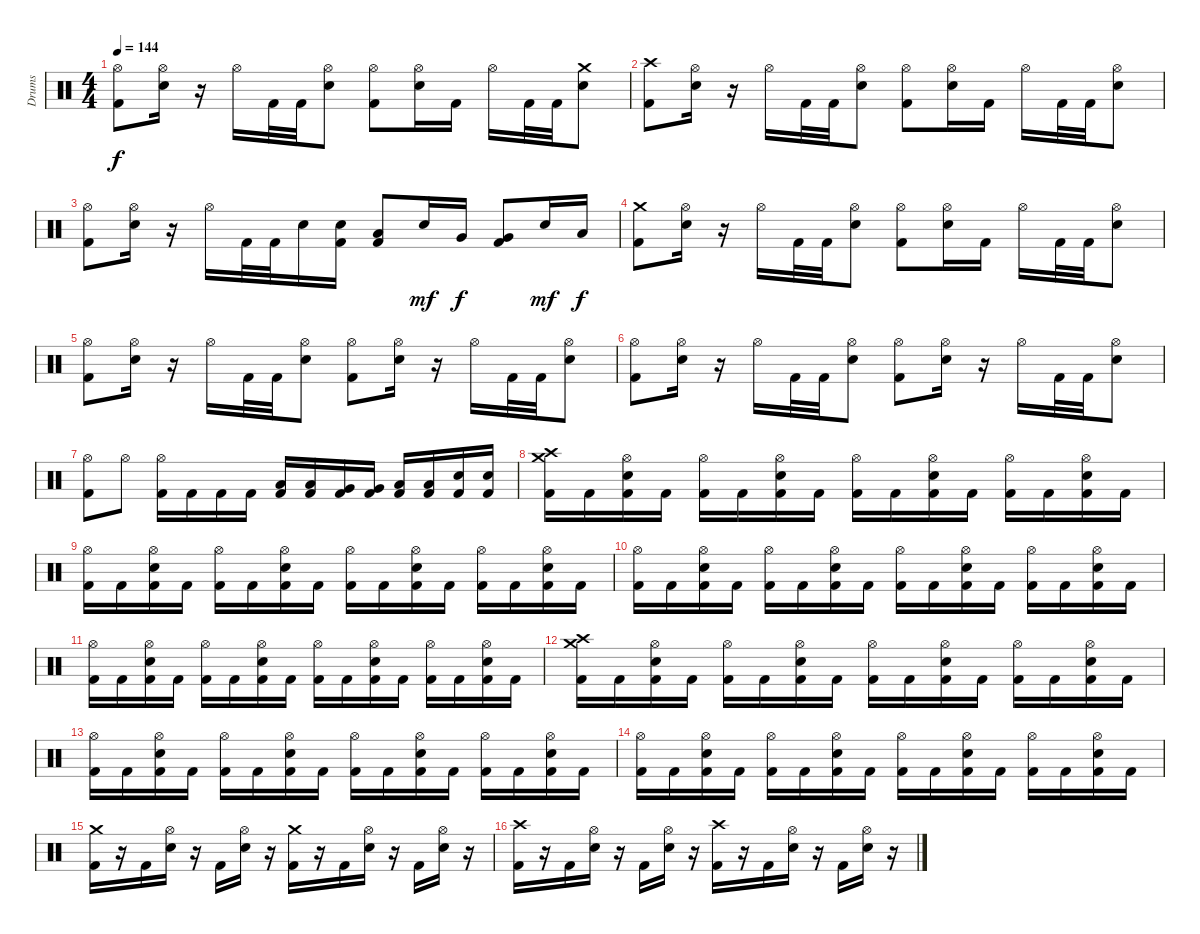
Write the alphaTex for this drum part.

\track ("Drums" "Drums") {instrument percussion}
\staff {score}
\articulation defaults
\ts (4 4)
\tempo 144
\clef neutral
\ks c
("Kick (hit) 2" "Hi-Hat (open)").8{dy f} ("Electric Snare (hit)" "Hi-Hat (open)").16 r.16 "Hi-Hat (open)".16 "Kick (hit) 2".32 "Kick (hit) 2".32 ("Electric Snare (hit)" "Hi-Hat (open)").8 ("Kick (hit) 2" "Hi-Hat (open)").8 ("Electric Snare (hit)" "Hi-Hat (open)").16 "Kick (hit) 2".16 "Hi-Hat (open)".16 "Kick (hit) 2".32 "Kick (hit) 2".32 ("Electric Snare (hit)" "Crash medium (hit)").8 |
("Kick (hit) 2" "Crash high (hit)").8 ("Electric Snare (hit)" "Hi-Hat (open)").16 r.16 "Hi-Hat (open)".16 "Kick (hit) 2".32 "Kick (hit) 2".32 ("Electric Snare (hit)" "Hi-Hat (open)").8 ("Kick (hit) 2" "Hi-Hat (open)").8 ("Electric Snare (hit)" "Hi-Hat (open)").16 "Kick (hit) 2".16 "Hi-Hat (open)".16 "Kick (hit) 2".32 "Kick (hit) 2".32 ("Electric Snare (hit)" "Hi-Hat (open)").8 |
("Kick (hit) 2" "Hi-Hat (open)").8 ("Electric Snare (hit)" "Hi-Hat (open)").16 r.16 "Hi-Hat (open)".16 "Kick (hit) 2".32 "Kick (hit) 2".32 "Electric Snare (hit)".16 ("Kick (hit) 2" "Electric Snare (hit)").16 ("Kick (hit) 2" "Low Tom (hit)").8 "Electric Snare (hit)".16{dy mf} "Very Low Tom (hit)".16{dy f} ("Kick (hit) 2" "Very Low Tom (hit)").8 "Electric Snare (hit)".16{dy mf} "Low Tom (hit)".16{dy f} |
("Kick (hit) 2" "Crash medium (hit)").8 ("Electric Snare (hit)" "Hi-Hat (open)").16 r.16 "Hi-Hat (open)".16 "Kick (hit) 2".32 "Kick (hit) 2".32 ("Electric Snare (hit)" "Hi-Hat (open)").8 ("Kick (hit) 2" "Hi-Hat (open)").8 ("Electric Snare (hit)" "Hi-Hat (open)").16 "Kick (hit) 2".16 "Hi-Hat (open)".16 "Kick (hit) 2".32 "Kick (hit) 2".32 ("Electric Snare (hit)" "Hi-Hat (open)").8 |
("Kick (hit) 2" "Hi-Hat (open)").8 ("Electric Snare (hit)" "Hi-Hat (open)").16 r.16 "Hi-Hat (open)".16 "Kick (hit) 2".32 "Kick (hit) 2".32 ("Electric Snare (hit)" "Hi-Hat (open)").8 ("Kick (hit) 2" "Hi-Hat (open)").8 ("Electric Snare (hit)" "Hi-Hat (open)").16 r.16 "Hi-Hat (open)".16 "Kick (hit) 2".32 "Kick (hit) 2".32 ("Electric Snare (hit)" "Hi-Hat (open)").8 |
("Kick (hit) 2" "Hi-Hat (open)").8 ("Electric Snare (hit)" "Hi-Hat (open)").16 r.16 "Hi-Hat (open)".16 "Kick (hit) 2".32 "Kick (hit) 2".32 ("Electric Snare (hit)" "Hi-Hat (open)").8 ("Kick (hit) 2" "Hi-Hat (open)").8 ("Electric Snare (hit)" "Hi-Hat (open)").16 r.16 "Hi-Hat (open)".16 "Kick (hit) 2".32 "Kick (hit) 2".32 ("Electric Snare (hit)" "Hi-Hat (open)").8 |
("Kick (hit) 2" "Hi-Hat (open)").8 "Hi-Hat (open)".8 ("Kick (hit) 2" "Hi-Hat (open)").16 "Kick (hit) 2".16 "Kick (hit) 2".16 "Kick (hit) 2".16 ("Kick (hit) 2" "Low Tom (hit)").16 ("Kick (hit) 2" "Low Tom (hit)").16 ("Kick (hit) 2" "Very Low Tom (hit)").16 ("Kick (hit) 2" "Very Low Tom (hit)").16 ("Kick (hit) 2" "Low Tom (hit)").16 ("Kick (hit) 2" "Low Tom (hit)").16 ("Kick (hit) 2" "Electric Snare (hit)").16 ("Kick (hit) 2" "Electric Snare (hit)").16 |
("Kick (hit) 2" "Crash high (hit)" "Crash medium (hit)").16 "Kick (hit) 2".16 ("Kick (hit) 2" "Electric Snare (hit)" "Hi-Hat (open)").16 "Kick (hit) 2".16 ("Kick (hit) 2" "Hi-Hat (open)").16 "Kick (hit) 2".16 ("Kick (hit) 2" "Electric Snare (hit)" "Hi-Hat (open)").16 "Kick (hit) 2".16 ("Kick (hit) 2" "Hi-Hat (open)").16 "Kick (hit) 2".16 ("Kick (hit) 2" "Electric Snare (hit)" "Hi-Hat (open)").16 "Kick (hit) 2".16 ("Kick (hit) 2" "Hi-Hat (open)").16 "Kick (hit) 2".16 ("Kick (hit) 2" "Electric Snare (hit)" "Hi-Hat (open)").16 "Kick (hit) 2".16 |
("Kick (hit) 2" "Hi-Hat (open)").16 "Kick (hit) 2".16 ("Kick (hit) 2" "Electric Snare (hit)" "Hi-Hat (open)").16 "Kick (hit) 2".16 ("Kick (hit) 2" "Hi-Hat (open)").16 "Kick (hit) 2".16 ("Kick (hit) 2" "Electric Snare (hit)" "Hi-Hat (open)").16 "Kick (hit) 2".16 ("Kick (hit) 2" "Hi-Hat (open)").16 "Kick (hit) 2".16 ("Kick (hit) 2" "Electric Snare (hit)" "Hi-Hat (open)").16 "Kick (hit) 2".16 ("Kick (hit) 2" "Hi-Hat (open)").16 "Kick (hit) 2".16 ("Kick (hit) 2" "Electric Snare (hit)" "Hi-Hat (open)").16 "Kick (hit) 2".16 |
("Kick (hit) 2" "Hi-Hat (open)").16 "Kick (hit) 2".16 ("Kick (hit) 2" "Electric Snare (hit)" "Hi-Hat (open)").16 "Kick (hit) 2".16 ("Kick (hit) 2" "Hi-Hat (open)").16 "Kick (hit) 2".16 ("Kick (hit) 2" "Electric Snare (hit)" "Hi-Hat (open)").16 "Kick (hit) 2".16 ("Kick (hit) 2" "Hi-Hat (open)").16 "Kick (hit) 2".16 ("Kick (hit) 2" "Electric Snare (hit)" "Hi-Hat (open)").16 "Kick (hit) 2".16 ("Kick (hit) 2" "Hi-Hat (open)").16 "Kick (hit) 2".16 ("Kick (hit) 2" "Electric Snare (hit)" "Hi-Hat (open)").16 "Kick (hit) 2".16 |
("Kick (hit) 2" "Hi-Hat (open)").16 "Kick (hit) 2".16 ("Kick (hit) 2" "Electric Snare (hit)" "Hi-Hat (open)").16 "Kick (hit) 2".16 ("Kick (hit) 2" "Hi-Hat (open)").16 "Kick (hit) 2".16 ("Kick (hit) 2" "Electric Snare (hit)" "Hi-Hat (open)").16 "Kick (hit) 2".16 ("Kick (hit) 2" "Hi-Hat (open)").16 "Kick (hit) 2".16 ("Kick (hit) 2" "Electric Snare (hit)" "Hi-Hat (open)").16 "Kick (hit) 2".16 ("Kick (hit) 2" "Hi-Hat (open)").16 "Kick (hit) 2".16 ("Kick (hit) 2" "Electric Snare (hit)" "Hi-Hat (open)").16 "Kick (hit) 2".16 |
("Kick (hit) 2" "Crash high (hit)" "Crash medium (hit)").16 "Kick (hit) 2".16 ("Kick (hit) 2" "Electric Snare (hit)" "Hi-Hat (open)").16 "Kick (hit) 2".16 ("Kick (hit) 2" "Hi-Hat (open)").16 "Kick (hit) 2".16 ("Kick (hit) 2" "Electric Snare (hit)" "Hi-Hat (open)").16 "Kick (hit) 2".16 ("Kick (hit) 2" "Hi-Hat (open)").16 "Kick (hit) 2".16 ("Kick (hit) 2" "Electric Snare (hit)" "Hi-Hat (open)").16 "Kick (hit) 2".16 ("Kick (hit) 2" "Hi-Hat (open)").16 "Kick (hit) 2".16 ("Kick (hit) 2" "Electric Snare (hit)" "Hi-Hat (open)").16 "Kick (hit) 2".16 |
("Kick (hit) 2" "Hi-Hat (open)").16 "Kick (hit) 2".16 ("Kick (hit) 2" "Electric Snare (hit)" "Hi-Hat (open)").16 "Kick (hit) 2".16 ("Kick (hit) 2" "Hi-Hat (open)").16 "Kick (hit) 2".16 ("Kick (hit) 2" "Electric Snare (hit)" "Hi-Hat (open)").16 "Kick (hit) 2".16 ("Kick (hit) 2" "Hi-Hat (open)").16 "Kick (hit) 2".16 ("Kick (hit) 2" "Electric Snare (hit)" "Hi-Hat (open)").16 "Kick (hit) 2".16 ("Kick (hit) 2" "Hi-Hat (open)").16 "Kick (hit) 2".16 ("Kick (hit) 2" "Electric Snare (hit)" "Hi-Hat (open)").16 "Kick (hit) 2".16 |
("Kick (hit) 2" "Hi-Hat (open)").16 "Kick (hit) 2".16 ("Kick (hit) 2" "Electric Snare (hit)" "Hi-Hat (open)").16 "Kick (hit) 2".16 ("Kick (hit) 2" "Hi-Hat (open)").16 "Kick (hit) 2".16 ("Kick (hit) 2" "Electric Snare (hit)" "Hi-Hat (open)").16 "Kick (hit) 2".16 ("Kick (hit) 2" "Hi-Hat (open)").16 "Kick (hit) 2".16 ("Kick (hit) 2" "Electric Snare (hit)" "Hi-Hat (open)").16 "Kick (hit) 2".16 ("Kick (hit) 2" "Hi-Hat (open)").16 "Kick (hit) 2".16 ("Kick (hit) 2" "Electric Snare (hit)" "Hi-Hat (open)").16 "Kick (hit) 2".16 |
("Kick (hit) 2" "Crash medium (hit)").16 r.16 "Kick (hit) 2".16 ("Electric Snare (hit)" "Hi-Hat (open)").16 r.16 "Kick (hit) 2".16 ("Electric Snare (hit)" "Hi-Hat (open)").16 r.16 ("Kick (hit) 2" "Crash medium (hit)").16 r.16 "Kick (hit) 2".16 ("Electric Snare (hit)" "Hi-Hat (open)").16 r.16 "Kick (hit) 2".16 ("Electric Snare (hit)" "Hi-Hat (open)").16 r.16 |
("Kick (hit) 2" "Crash high (hit)").16 r.16 "Kick (hit) 2".16 ("Electric Snare (hit)" "Hi-Hat (open)").16 r.16 "Kick (hit) 2".16 ("Electric Snare (hit)" "Hi-Hat (open)").16 r.16 ("Kick (hit) 2" "Crash high (hit)").16 r.16 "Kick (hit) 2".16 ("Electric Snare (hit)" "Hi-Hat (open)").16 r.16 "Kick (hit) 2".16 ("Electric Snare (hit)" "Hi-Hat (open)").16 r.16
